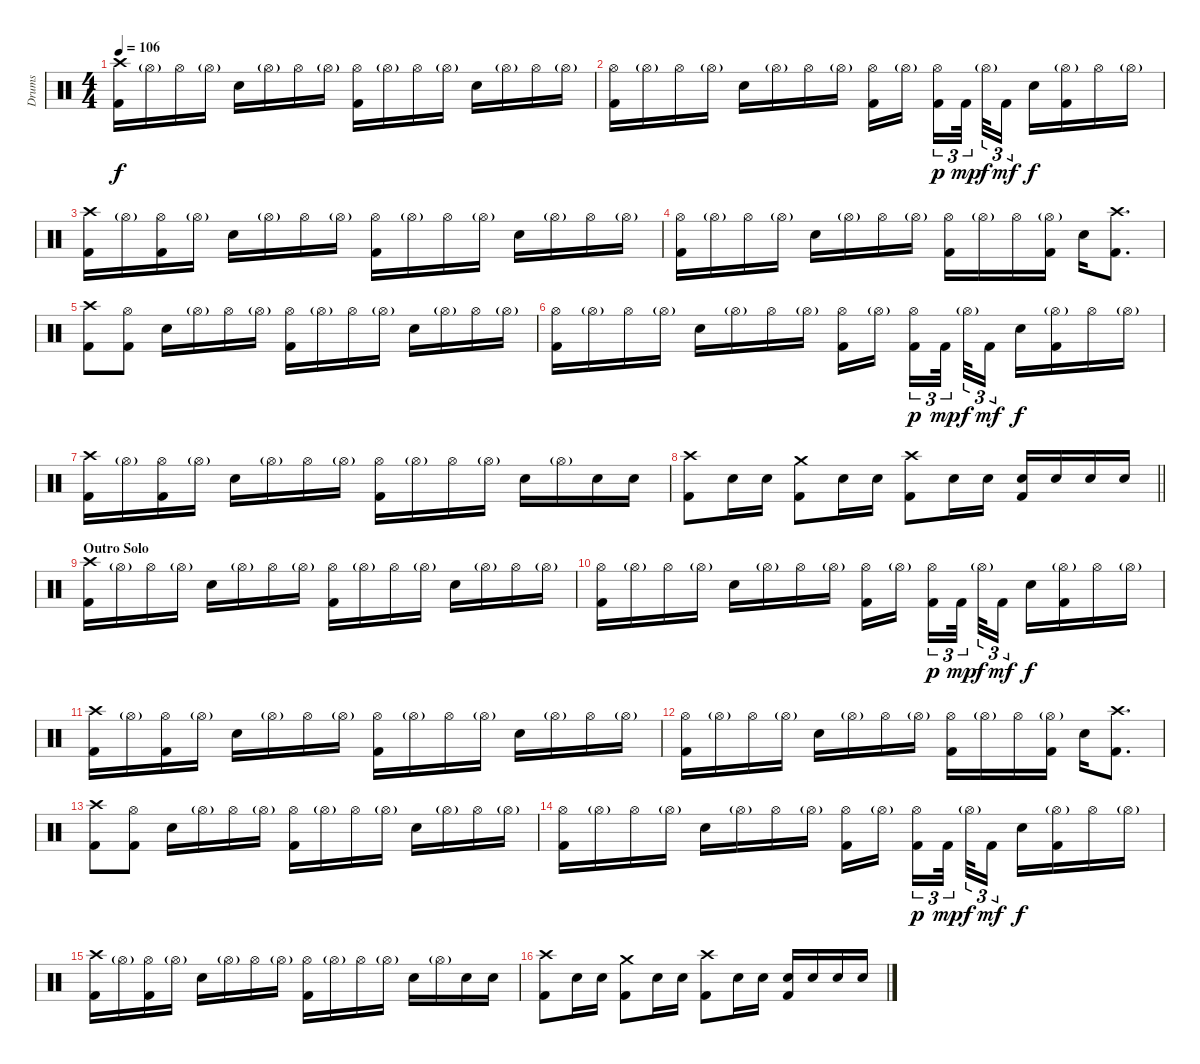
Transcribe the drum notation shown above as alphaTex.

\track ("Drums" "Drums") {instrument percussion}
\staff {score}
\articulation defaults
\ts (4 4)
\tempo 106
\clef neutral
\ks c
("Crash high (hit)" "Kick (hit) 2").16{dy f} "Hi-Hat (open)"{g}.16 "Hi-Hat (open)".16 "Hi-Hat (open)"{g}.16 "Electric Snare (hit)".16 "Hi-Hat (open)"{g}.16 "Hi-Hat (open)".16 "Hi-Hat (open)"{g}.16 ("Hi-Hat (open)" "Kick (hit) 2").16 "Hi-Hat (open)"{g}.16 "Hi-Hat (open)".16 "Hi-Hat (open)"{g}.16 "Electric Snare (hit)".16 "Hi-Hat (open)"{g}.16 "Hi-Hat (open)".16 "Hi-Hat (open)"{g}.16 |
("Hi-Hat (open)" "Kick (hit) 2").16 "Hi-Hat (open)"{g}.16 "Hi-Hat (open)".16 "Hi-Hat (open)"{g}.16 "Electric Snare (hit)".16 "Hi-Hat (open)"{g}.16 "Hi-Hat (open)".16 "Hi-Hat (open)"{g}.16 ("Hi-Hat (open)" "Kick (hit) 2").16 "Hi-Hat (open)"{g}.16{beam splitsecondary} ("Hi-Hat (open)" "Kick (hit) 2").16{tu (3 2) dy p} "Kick (hit) 2".32{tu (3 2) dy mp beam splitsecondary} "Hi-Hat (open)"{g}.32{tu (3 2) dy f} "Kick (hit) 2".16{tu (3 2) dy mf} "Electric Snare (hit)".16{dy f} ("Hi-Hat (open)"{g} "Kick (hit) 2").16 "Hi-Hat (open)".16 "Hi-Hat (open)"{g}.16 |
("Crash high (hit)" "Kick (hit) 2").16 "Hi-Hat (open)"{g}.16 ("Hi-Hat (open)" "Kick (hit) 2").16 "Hi-Hat (open)"{g}.16 "Electric Snare (hit)".16 "Hi-Hat (open)"{g}.16 "Hi-Hat (open)".16 "Hi-Hat (open)"{g}.16 ("Hi-Hat (open)" "Kick (hit) 2").16 "Hi-Hat (open)"{g}.16 "Hi-Hat (open)".16 "Hi-Hat (open)"{g}.16 "Electric Snare (hit)".16 "Hi-Hat (open)"{g}.16 "Hi-Hat (open)".16 "Hi-Hat (open)"{g}.16 |
("Hi-Hat (open)" "Kick (hit) 2").16 "Hi-Hat (open)"{g}.16 "Hi-Hat (open)".16 "Hi-Hat (open)"{g}.16 "Electric Snare (hit)".16 "Hi-Hat (open)"{g}.16 "Hi-Hat (open)".16 "Hi-Hat (open)"{g}.16 ("Hi-Hat (open)" "Kick (hit) 2").16 "Hi-Hat (open)"{g}.16 "Hi-Hat (open)".16 ("Hi-Hat (open)"{g} "Kick (hit) 2").16 "Electric Snare (hit)".16 ("Crash high (hit)" "Kick (hit) 2").8{d} |
("Crash high (hit)" "Kick (hit) 2").8 ("Hi-Hat (open)" "Kick (hit) 2").8 "Electric Snare (hit)".16 "Hi-Hat (open)"{g}.16 "Hi-Hat (open)".16 "Hi-Hat (open)"{g}.16 ("Hi-Hat (open)" "Kick (hit) 2").16 "Hi-Hat (open)"{g}.16 "Hi-Hat (open)".16 "Hi-Hat (open)"{g}.16 "Electric Snare (hit)".16 "Hi-Hat (open)"{g}.16 "Hi-Hat (open)".16 "Hi-Hat (open)"{g}.16 |
("Hi-Hat (open)" "Kick (hit) 2").16 "Hi-Hat (open)"{g}.16 "Hi-Hat (open)".16 "Hi-Hat (open)"{g}.16 "Electric Snare (hit)".16 "Hi-Hat (open)"{g}.16 "Hi-Hat (open)".16 "Hi-Hat (open)"{g}.16 ("Hi-Hat (open)" "Kick (hit) 2").16 "Hi-Hat (open)"{g}.16{beam splitsecondary} ("Hi-Hat (open)" "Kick (hit) 2").16{tu (3 2) dy p} "Kick (hit) 2".32{tu (3 2) dy mp beam splitsecondary} "Hi-Hat (open)"{g}.32{tu (3 2) dy f} "Kick (hit) 2".16{tu (3 2) dy mf} "Electric Snare (hit)".16{dy f} ("Hi-Hat (open)"{g} "Kick (hit) 2").16 "Hi-Hat (open)".16 "Hi-Hat (open)"{g}.16 |
("Crash high (hit)" "Kick (hit) 2").16 "Hi-Hat (open)"{g}.16 ("Hi-Hat (open)" "Kick (hit) 2").16 "Hi-Hat (open)"{g}.16 "Electric Snare (hit)".16 "Hi-Hat (open)"{g}.16 "Hi-Hat (open)".16 "Hi-Hat (open)"{g}.16 ("Hi-Hat (open)" "Kick (hit) 2").16 "Hi-Hat (open)"{g}.16 "Hi-Hat (open)".16 "Hi-Hat (open)"{g}.16 "Electric Snare (hit)".16 "Hi-Hat (open)"{g}.16 "Electric Snare (hit)".16 "Electric Snare (hit)".16 |
\barLineRight lightlight
("Crash high (hit)" "Kick (hit) 2").8 "Electric Snare (hit)".16 "Electric Snare (hit)".16 ("Crash medium (hit)" "Kick (hit) 2").8 "Electric Snare (hit)".16 "Electric Snare (hit)".16 ("Crash high (hit)" "Kick (hit) 2").8 "Electric Snare (hit)".16 "Electric Snare (hit)".16 ("Electric Snare (hit)" "Kick (hit) 2").16 "Electric Snare (hit)".16 "Electric Snare (hit)".16 "Electric Snare (hit)".16 |
\section ("" "Outro Solo")
("Crash high (hit)" "Kick (hit) 2").16 "Hi-Hat (open)"{g}.16 "Hi-Hat (open)".16 "Hi-Hat (open)"{g}.16 "Electric Snare (hit)".16 "Hi-Hat (open)"{g}.16 "Hi-Hat (open)".16 "Hi-Hat (open)"{g}.16 ("Hi-Hat (open)" "Kick (hit) 2").16 "Hi-Hat (open)"{g}.16 "Hi-Hat (open)".16 "Hi-Hat (open)"{g}.16 "Electric Snare (hit)".16 "Hi-Hat (open)"{g}.16 "Hi-Hat (open)".16 "Hi-Hat (open)"{g}.16 |
("Hi-Hat (open)" "Kick (hit) 2").16 "Hi-Hat (open)"{g}.16 "Hi-Hat (open)".16 "Hi-Hat (open)"{g}.16 "Electric Snare (hit)".16 "Hi-Hat (open)"{g}.16 "Hi-Hat (open)".16 "Hi-Hat (open)"{g}.16 ("Hi-Hat (open)" "Kick (hit) 2").16 "Hi-Hat (open)"{g}.16{beam splitsecondary} ("Hi-Hat (open)" "Kick (hit) 2").16{tu (3 2) dy p} "Kick (hit) 2".32{tu (3 2) dy mp beam splitsecondary} "Hi-Hat (open)"{g}.32{tu (3 2) dy f} "Kick (hit) 2".16{tu (3 2) dy mf} "Electric Snare (hit)".16{dy f} ("Hi-Hat (open)"{g} "Kick (hit) 2").16 "Hi-Hat (open)".16 "Hi-Hat (open)"{g}.16 |
("Crash high (hit)" "Kick (hit) 2").16 "Hi-Hat (open)"{g}.16 ("Hi-Hat (open)" "Kick (hit) 2").16 "Hi-Hat (open)"{g}.16 "Electric Snare (hit)".16 "Hi-Hat (open)"{g}.16 "Hi-Hat (open)".16 "Hi-Hat (open)"{g}.16 ("Hi-Hat (open)" "Kick (hit) 2").16 "Hi-Hat (open)"{g}.16 "Hi-Hat (open)".16 "Hi-Hat (open)"{g}.16 "Electric Snare (hit)".16 "Hi-Hat (open)"{g}.16 "Hi-Hat (open)".16 "Hi-Hat (open)"{g}.16 |
("Hi-Hat (open)" "Kick (hit) 2").16 "Hi-Hat (open)"{g}.16 "Hi-Hat (open)".16 "Hi-Hat (open)"{g}.16 "Electric Snare (hit)".16 "Hi-Hat (open)"{g}.16 "Hi-Hat (open)".16 "Hi-Hat (open)"{g}.16 ("Hi-Hat (open)" "Kick (hit) 2").16 "Hi-Hat (open)"{g}.16 "Hi-Hat (open)".16 ("Hi-Hat (open)"{g} "Kick (hit) 2").16 "Electric Snare (hit)".16 ("Crash high (hit)" "Kick (hit) 2").8{d} |
("Crash high (hit)" "Kick (hit) 2").8 ("Hi-Hat (open)" "Kick (hit) 2").8 "Electric Snare (hit)".16 "Hi-Hat (open)"{g}.16 "Hi-Hat (open)".16 "Hi-Hat (open)"{g}.16 ("Hi-Hat (open)" "Kick (hit) 2").16 "Hi-Hat (open)"{g}.16 "Hi-Hat (open)".16 "Hi-Hat (open)"{g}.16 "Electric Snare (hit)".16 "Hi-Hat (open)"{g}.16 "Hi-Hat (open)".16 "Hi-Hat (open)"{g}.16 |
("Hi-Hat (open)" "Kick (hit) 2").16 "Hi-Hat (open)"{g}.16 "Hi-Hat (open)".16 "Hi-Hat (open)"{g}.16 "Electric Snare (hit)".16 "Hi-Hat (open)"{g}.16 "Hi-Hat (open)".16 "Hi-Hat (open)"{g}.16 ("Hi-Hat (open)" "Kick (hit) 2").16 "Hi-Hat (open)"{g}.16{beam splitsecondary} ("Hi-Hat (open)" "Kick (hit) 2").16{tu (3 2) dy p} "Kick (hit) 2".32{tu (3 2) dy mp beam splitsecondary} "Hi-Hat (open)"{g}.32{tu (3 2) dy f} "Kick (hit) 2".16{tu (3 2) dy mf} "Electric Snare (hit)".16{dy f} ("Hi-Hat (open)"{g} "Kick (hit) 2").16 "Hi-Hat (open)".16 "Hi-Hat (open)"{g}.16 |
("Crash high (hit)" "Kick (hit) 2").16 "Hi-Hat (open)"{g}.16 ("Hi-Hat (open)" "Kick (hit) 2").16 "Hi-Hat (open)"{g}.16 "Electric Snare (hit)".16 "Hi-Hat (open)"{g}.16 "Hi-Hat (open)".16 "Hi-Hat (open)"{g}.16 ("Hi-Hat (open)" "Kick (hit) 2").16 "Hi-Hat (open)"{g}.16 "Hi-Hat (open)".16 "Hi-Hat (open)"{g}.16 "Electric Snare (hit)".16 "Hi-Hat (open)"{g}.16 "Electric Snare (hit)".16 "Electric Snare (hit)".16 |
("Crash high (hit)" "Kick (hit) 2").8 "Electric Snare (hit)".16 "Electric Snare (hit)".16 ("Crash medium (hit)" "Kick (hit) 2").8 "Electric Snare (hit)".16 "Electric Snare (hit)".16 ("Crash high (hit)" "Kick (hit) 2").8 "Electric Snare (hit)".16 "Electric Snare (hit)".16 ("Electric Snare (hit)" "Kick (hit) 2").16 "Electric Snare (hit)".16 "Electric Snare (hit)".16 "Electric Snare (hit)".16
